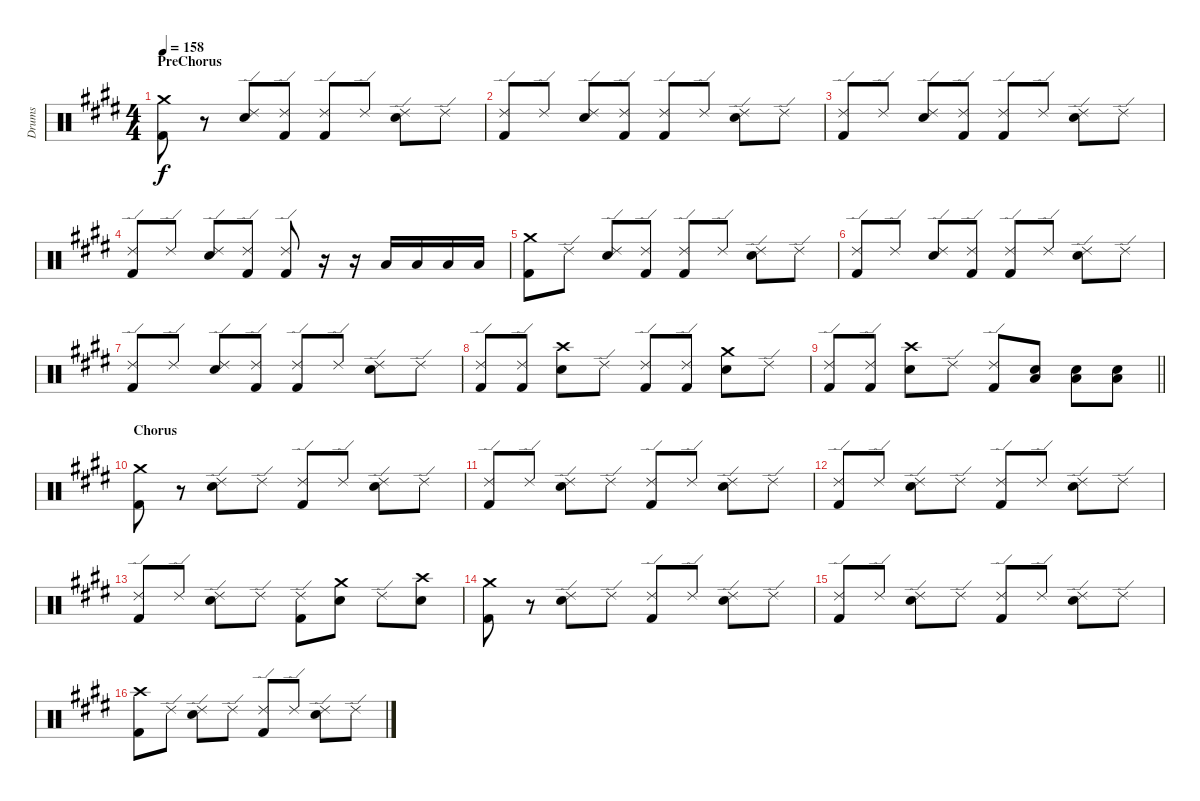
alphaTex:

\track ("Drums" "Drums") {instrument percussion}
\staff {score}
\articulation defaults
\ts (4 4)
\section ("" "PreChorus")
\tempo 158
\clef neutral
\ks e
("Crash medium (hit)" "Kick (hit) 2").8{dy f} r.8 ("Ride (edge) 2" "Snare (hit) 2").8 ("Ride (edge) 2" "Kick (hit) 2").8 ("Ride (edge) 2" "Kick (hit) 2").8 "Ride (edge) 2".8 ("Ride (edge) 2" "Snare (hit) 2").8 "Ride (edge) 2".8 |
\ks c#minor
("Ride (edge) 2" "Kick (hit) 2").8 "Ride (edge) 2".8 ("Ride (edge) 2" "Snare (hit) 2").8 ("Ride (edge) 2" "Kick (hit) 2").8 ("Ride (edge) 2" "Kick (hit) 2").8 "Ride (edge) 2".8 ("Ride (edge) 2" "Snare (hit) 2").8 "Ride (edge) 2".8 |
("Ride (edge) 2" "Kick (hit) 2").8 "Ride (edge) 2".8 ("Ride (edge) 2" "Snare (hit) 2").8 ("Ride (edge) 2" "Kick (hit) 2").8 ("Ride (edge) 2" "Kick (hit) 2").8 "Ride (edge) 2".8 ("Ride (edge) 2" "Snare (hit) 2").8 "Ride (edge) 2".8 |
("Ride (edge) 2" "Kick (hit) 2").8 "Ride (edge) 2".8 ("Ride (edge) 2" "Snare (hit) 2").8 ("Ride (edge) 2" "Kick (hit) 2").8 ("Ride (edge) 2" "Kick (hit) 2").8 r.16 r.16 "Low Tom (hit)".16 "Low Tom (hit)".16 "Low Floor Tom (hit)".16 "Low Tom (hit)".16 |
\ks e
("Crash medium (hit)" "Kick (hit) 2").8 "Ride (edge) 2".8 ("Ride (edge) 2" "Snare (hit) 2").8 ("Ride (edge) 2" "Kick (hit) 2").8 ("Ride (edge) 2" "Kick (hit) 2").8 "Ride (edge) 2".8 ("Ride (edge) 2" "Snare (hit) 2").8 "Ride (edge) 2".8 |
\ks c#minor
("Ride (edge) 2" "Kick (hit) 2").8 "Ride (edge) 2".8 ("Ride (edge) 2" "Snare (hit) 2").8 ("Ride (edge) 2" "Kick (hit) 2").8 ("Ride (edge) 2" "Kick (hit) 2").8 "Ride (edge) 2".8 ("Ride (edge) 2" "Snare (hit) 2").8 "Ride (edge) 2".8 |
("Ride (edge) 2" "Kick (hit) 2").8 "Ride (edge) 2".8 ("Ride (edge) 2" "Snare (hit) 2").8 ("Ride (edge) 2" "Kick (hit) 2").8 ("Ride (edge) 2" "Kick (hit) 2").8 "Ride (edge) 2".8 ("Ride (edge) 2" "Snare (hit) 2").8 "Ride (edge) 2".8 |
\ks e
("Ride (edge) 2" "Kick (hit) 2").8 ("Ride (edge) 2" "Kick (hit) 2").8 ("Crash high (hit)" "Snare (hit) 2").8 "Ride (edge) 2".8 ("Ride (edge) 2" "Kick (hit) 2").8 ("Ride (edge) 2" "Kick (hit) 2").8 ("Crash medium (hit)" "Snare (hit) 2").8 "Ride (edge) 2".8 |
\barLineRight lightlight
\ks c#minor
("Ride (edge) 2" "Kick (hit) 2").8 ("Ride (edge) 2" "Kick (hit) 2").8 ("Crash high (hit)" "Snare (hit) 2").8 "Ride (edge) 2".8 ("Ride (edge) 2" "Kick (hit) 2").8 ("Snare (hit) 2" "Low Floor Tom (hit)").8 ("Snare (hit) 2" "Low Floor Tom (hit)").8 ("Snare (hit) 2" "Low Floor Tom (hit)").8 |
\section ("" "Chorus")
\ks e
("Crash medium (hit)" "Kick (hit) 2").8 r.8 ("Ride (edge) 2" "Snare (hit) 2").8 "Ride (edge) 2".8 ("Ride (edge) 2" "Kick (hit) 2").8 "Ride (edge) 2".8 ("Ride (edge) 2" "Snare (hit) 2").8 "Ride (edge) 2".8 |
\ks c#minor
("Ride (edge) 2" "Kick (hit) 2").8 "Ride (edge) 2".8 ("Ride (edge) 2" "Snare (hit) 2").8 "Ride (edge) 2".8 ("Ride (edge) 2" "Kick (hit) 2").8 "Ride (edge) 2".8 ("Ride (edge) 2" "Snare (hit) 2").8 "Ride (edge) 2".8 |
("Ride (edge) 2" "Kick (hit) 2").8 "Ride (edge) 2".8 ("Ride (edge) 2" "Snare (hit) 2").8 "Ride (edge) 2".8 ("Ride (edge) 2" "Kick (hit) 2").8 "Ride (edge) 2".8 ("Ride (edge) 2" "Snare (hit) 2").8 "Ride (edge) 2".8 |
("Ride (edge) 2" "Kick (hit) 2").8 "Ride (edge) 2".8 ("Ride (edge) 2" "Snare (hit) 2").8 "Ride (edge) 2".8 ("Ride (edge) 2" "Kick (hit) 2").8 ("Crash medium (hit)" "Snare (hit) 2").8 "Ride (edge) 2".8 ("Crash high (hit)" "Snare (hit) 2").8 |
\ks e
("Crash medium (hit)" "Kick (hit) 2").8 r.8 ("Ride (edge) 2" "Snare (hit) 2").8 "Ride (edge) 2".8 ("Ride (edge) 2" "Kick (hit) 2").8 "Ride (edge) 2".8 ("Ride (edge) 2" "Snare (hit) 2").8 "Ride (edge) 2".8 |
\ks c#minor
("Ride (edge) 2" "Kick (hit) 2").8 "Ride (edge) 2".8 ("Ride (edge) 2" "Snare (hit) 2").8 "Ride (edge) 2".8 ("Ride (edge) 2" "Kick (hit) 2").8 "Ride (edge) 2".8 ("Ride (edge) 2" "Snare (hit) 2").8 "Ride (edge) 2".8 |
("Crash high (hit)" "Kick (hit) 2").8 "Ride (edge) 2".8 ("Ride (edge) 2" "Snare (hit) 2").8 "Ride (edge) 2".8 ("Ride (edge) 2" "Kick (hit) 2").8 "Ride (edge) 2".8 ("Ride (edge) 2" "Snare (hit) 2").8 "Ride (edge) 2".8
